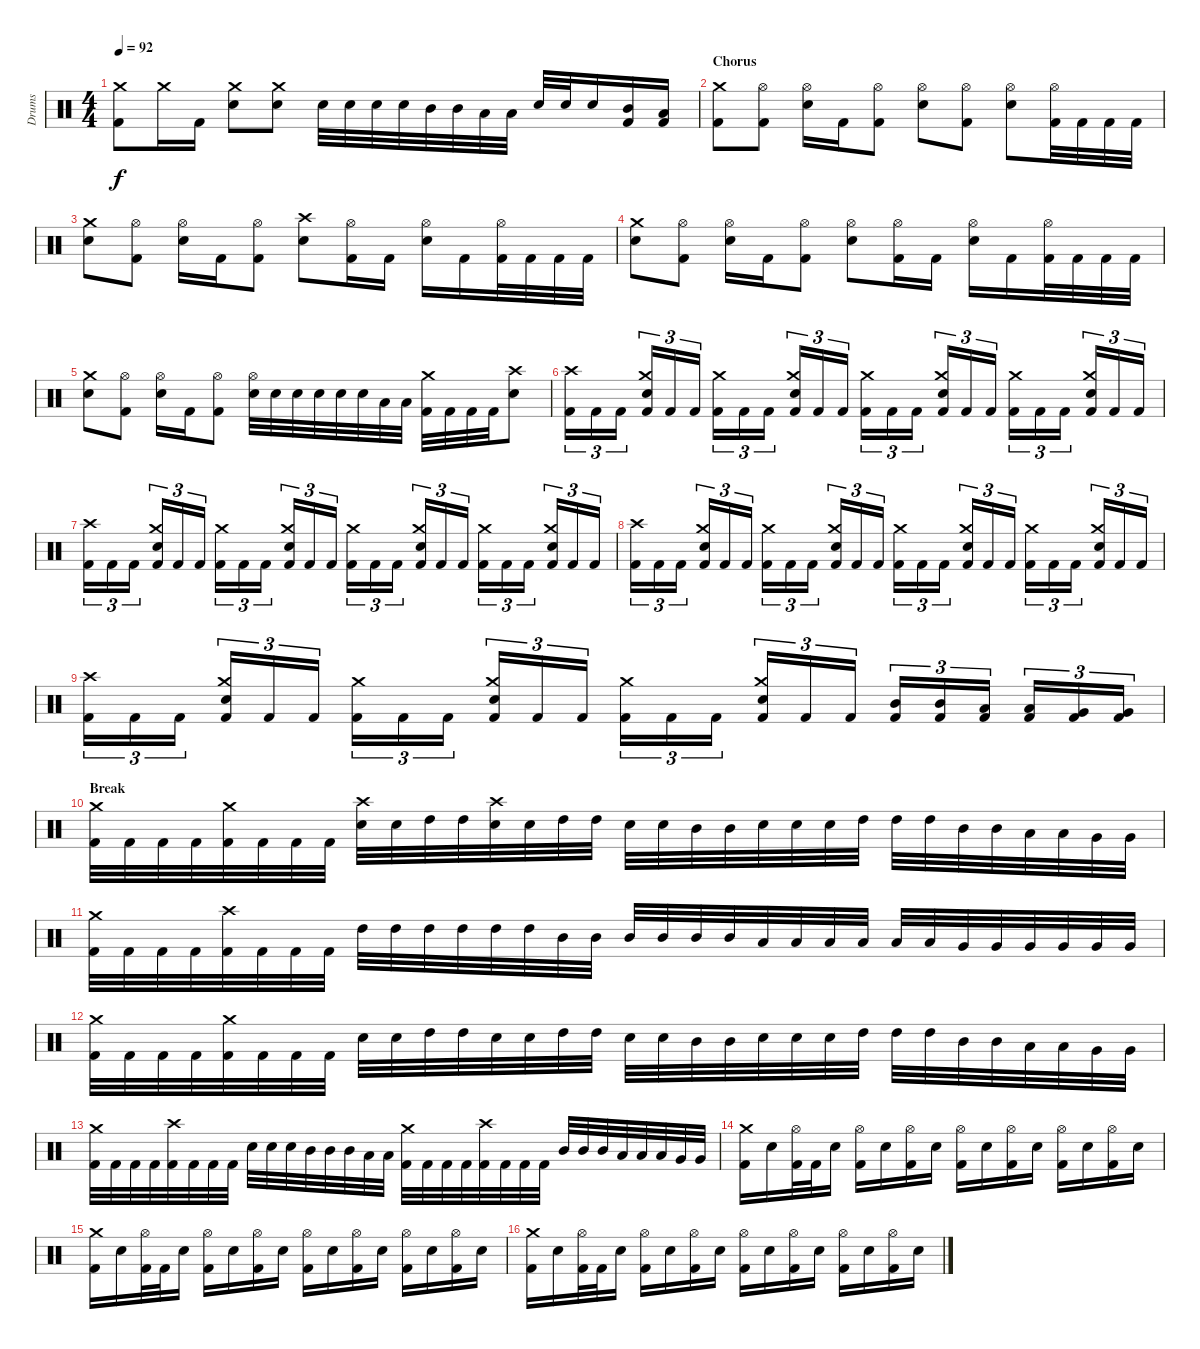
\track ("Drums" "Drums") {instrument percussion}
\staff {score}
\articulation defaults
\ts (4 4)
\tempo 92
\clef neutral
\ks c
("Kick (hit) 2" "Crash medium (hit)").8{dy f} "Crash medium (hit)".16 "Kick (hit) 2".16 ("Electric Snare (hit)" "Crash medium (hit)").8 ("Electric Snare (hit)" "Crash medium (hit)").8 "Electric Snare (hit)".32 "Electric Snare (hit)".32 "Electric Snare (hit)".32 "Electric Snare (hit)".32 "Mid Tom (hit)".32 "Mid Tom (hit)".32 "Low Tom (hit)".32 "Low Tom (hit)".32 "Electric Snare (hit)".32 "Electric Snare (hit)".32 "Electric Snare (hit)".16 ("Kick (hit) 2" "Mid Tom (hit)").16 ("Kick (hit) 2" "Low Tom (hit)").16 |
\section ("" "Chorus")
("Kick (hit) 2" "Crash medium (hit)").8 ("Kick (hit) 2" "Hi-Hat (open)").8 ("Electric Snare (hit)" "Hi-Hat (open)").16 "Kick (hit) 2".16 ("Kick (hit) 2" "Hi-Hat (open)").8 ("Electric Snare (hit)" "Hi-Hat (open)").8 ("Kick (hit) 2" "Hi-Hat (open)").8 ("Electric Snare (hit)" "Hi-Hat (open)").8 ("Kick (hit) 2" "Hi-Hat (open)").32 "Kick (hit) 2".32 "Kick (hit) 2".32 "Kick (hit) 2".32 |
("Electric Snare (hit)" "Crash medium (hit)").8 ("Kick (hit) 2" "Hi-Hat (open)").8 ("Electric Snare (hit)" "Hi-Hat (open)").16 "Kick (hit) 2".16 ("Kick (hit) 2" "Hi-Hat (open)").8 ("Electric Snare (hit)" "Crash high (hit)").8 ("Kick (hit) 2" "Hi-Hat (open)").16 "Kick (hit) 2".16 ("Electric Snare (hit)" "Hi-Hat (open)").16 "Kick (hit) 2".16 ("Kick (hit) 2" "Hi-Hat (open)").32 "Kick (hit) 2".32 "Kick (hit) 2".32 "Kick (hit) 2".32 |
("Electric Snare (hit)" "Crash medium (hit)").8 ("Kick (hit) 2" "Hi-Hat (open)").8 ("Electric Snare (hit)" "Hi-Hat (open)").16 "Kick (hit) 2".16 ("Kick (hit) 2" "Hi-Hat (open)").8 ("Electric Snare (hit)" "Hi-Hat (open)").8 ("Kick (hit) 2" "Hi-Hat (open)").16 "Kick (hit) 2".16 ("Electric Snare (hit)" "Hi-Hat (open)").16 "Kick (hit) 2".16 ("Kick (hit) 2" "Hi-Hat (open)").32 "Kick (hit) 2".32 "Kick (hit) 2".32 "Kick (hit) 2".32 |
("Electric Snare (hit)" "Crash medium (hit)").8 ("Kick (hit) 2" "Hi-Hat (open)").8 ("Electric Snare (hit)" "Hi-Hat (open)").16 "Kick (hit) 2".16 ("Kick (hit) 2" "Hi-Hat (open)").8 ("Electric Snare (hit)" "Hi-Hat (open)").32 "Electric Snare (hit)".32 "Electric Snare (hit)".32 "Electric Snare (hit)".32 "Electric Snare (hit)".32 "Electric Snare (hit)".32 "Low Tom (hit)".32 "Low Tom (hit)".32 ("Kick (hit) 2" "Crash medium (hit)").32 "Kick (hit) 2".32 "Kick (hit) 2".32 "Kick (hit) 2".32 ("Electric Snare (hit)" "Crash high (hit)").8 |
("Kick (hit) 2" "Crash high (hit)").16{tu (3 2)} "Kick (hit) 2".16{tu (3 2)} "Kick (hit) 2".16{tu (3 2)} ("Kick (hit) 2" "Electric Snare (hit)" "Crash medium (hit)").16{tu (3 2)} "Kick (hit) 2".16{tu (3 2)} "Kick (hit) 2".16{tu (3 2)} ("Kick (hit) 2" "Crash medium (hit)").16{tu (3 2)} "Kick (hit) 2".16{tu (3 2)} "Kick (hit) 2".16{tu (3 2)} ("Kick (hit) 2" "Electric Snare (hit)" "Crash medium (hit)").16{tu (3 2)} "Kick (hit) 2".16{tu (3 2)} "Kick (hit) 2".16{tu (3 2)} ("Kick (hit) 2" "Crash medium (hit)").16{tu (3 2)} "Kick (hit) 2".16{tu (3 2)} "Kick (hit) 2".16{tu (3 2)} ("Kick (hit) 2" "Electric Snare (hit)" "Crash medium (hit)").16{tu (3 2)} "Kick (hit) 2".16{tu (3 2)} "Kick (hit) 2".16{tu (3 2)} ("Kick (hit) 2" "Crash medium (hit)").16{tu (3 2)} "Kick (hit) 2".16{tu (3 2)} "Kick (hit) 2".16{tu (3 2)} ("Kick (hit) 2" "Electric Snare (hit)" "Crash medium (hit)").16{tu (3 2)} "Kick (hit) 2".16{tu (3 2)} "Kick (hit) 2".16{tu (3 2)} |
("Kick (hit) 2" "Crash high (hit)").16{tu (3 2)} "Kick (hit) 2".16{tu (3 2)} "Kick (hit) 2".16{tu (3 2)} ("Kick (hit) 2" "Electric Snare (hit)" "Crash medium (hit)").16{tu (3 2)} "Kick (hit) 2".16{tu (3 2)} "Kick (hit) 2".16{tu (3 2)} ("Kick (hit) 2" "Crash medium (hit)").16{tu (3 2)} "Kick (hit) 2".16{tu (3 2)} "Kick (hit) 2".16{tu (3 2)} ("Kick (hit) 2" "Electric Snare (hit)" "Crash medium (hit)").16{tu (3 2)} "Kick (hit) 2".16{tu (3 2)} "Kick (hit) 2".16{tu (3 2)} ("Kick (hit) 2" "Crash medium (hit)").16{tu (3 2)} "Kick (hit) 2".16{tu (3 2)} "Kick (hit) 2".16{tu (3 2)} ("Kick (hit) 2" "Electric Snare (hit)" "Crash medium (hit)").16{tu (3 2)} "Kick (hit) 2".16{tu (3 2)} "Kick (hit) 2".16{tu (3 2)} ("Kick (hit) 2" "Crash medium (hit)").16{tu (3 2)} "Kick (hit) 2".16{tu (3 2)} "Kick (hit) 2".16{tu (3 2)} ("Kick (hit) 2" "Electric Snare (hit)" "Crash medium (hit)").16{tu (3 2)} "Kick (hit) 2".16{tu (3 2)} "Kick (hit) 2".16{tu (3 2)} |
("Kick (hit) 2" "Crash high (hit)").16{tu (3 2)} "Kick (hit) 2".16{tu (3 2)} "Kick (hit) 2".16{tu (3 2)} ("Kick (hit) 2" "Electric Snare (hit)" "Crash medium (hit)").16{tu (3 2)} "Kick (hit) 2".16{tu (3 2)} "Kick (hit) 2".16{tu (3 2)} ("Kick (hit) 2" "Crash medium (hit)").16{tu (3 2)} "Kick (hit) 2".16{tu (3 2)} "Kick (hit) 2".16{tu (3 2)} ("Kick (hit) 2" "Electric Snare (hit)" "Crash medium (hit)").16{tu (3 2)} "Kick (hit) 2".16{tu (3 2)} "Kick (hit) 2".16{tu (3 2)} ("Kick (hit) 2" "Crash medium (hit)").16{tu (3 2)} "Kick (hit) 2".16{tu (3 2)} "Kick (hit) 2".16{tu (3 2)} ("Kick (hit) 2" "Electric Snare (hit)" "Crash medium (hit)").16{tu (3 2)} "Kick (hit) 2".16{tu (3 2)} "Kick (hit) 2".16{tu (3 2)} ("Kick (hit) 2" "Crash medium (hit)").16{tu (3 2)} "Kick (hit) 2".16{tu (3 2)} "Kick (hit) 2".16{tu (3 2)} ("Kick (hit) 2" "Electric Snare (hit)" "Crash medium (hit)").16{tu (3 2)} "Kick (hit) 2".16{tu (3 2)} "Kick (hit) 2".16{tu (3 2)} |
("Kick (hit) 2" "Crash high (hit)").16{tu (3 2)} "Kick (hit) 2".16{tu (3 2)} "Kick (hit) 2".16{tu (3 2)} ("Kick (hit) 2" "Electric Snare (hit)" "Crash medium (hit)").16{tu (3 2)} "Kick (hit) 2".16{tu (3 2)} "Kick (hit) 2".16{tu (3 2)} ("Kick (hit) 2" "Crash medium (hit)").16{tu (3 2)} "Kick (hit) 2".16{tu (3 2)} "Kick (hit) 2".16{tu (3 2)} ("Kick (hit) 2" "Electric Snare (hit)" "Crash medium (hit)").16{tu (3 2)} "Kick (hit) 2".16{tu (3 2)} "Kick (hit) 2".16{tu (3 2)} ("Kick (hit) 2" "Crash medium (hit)").16{tu (3 2)} "Kick (hit) 2".16{tu (3 2)} "Kick (hit) 2".16{tu (3 2)} ("Kick (hit) 2" "Electric Snare (hit)" "Crash medium (hit)").16{tu (3 2)} "Kick (hit) 2".16{tu (3 2)} "Kick (hit) 2".16{tu (3 2)} ("Kick (hit) 2" "Mid Tom (hit)").16{tu (3 2)} ("Kick (hit) 2" "Mid Tom (hit)").16{tu (3 2)} ("Kick (hit) 2" "Low Tom (hit)").16{tu (3 2)} ("Kick (hit) 2" "Low Tom (hit)").16{tu (3 2)} ("Kick (hit) 2" "Very Low Tom (hit)").16{tu (3 2)} ("Kick (hit) 2" "Very Low Tom (hit)").16{tu (3 2)} |
\section ("" "Break")
("Kick (hit) 2" "Crash medium (hit)").32 "Kick (hit) 2".32 "Kick (hit) 2".32 "Kick (hit) 2".32 ("Kick (hit) 2" "Crash medium (hit)").32 "Kick (hit) 2".32 "Kick (hit) 2".32 "Kick (hit) 2".32 ("Electric Snare (hit)" "Crash high (hit)").32 "Electric Snare (hit)".32 "High Tom (hit)".32 "High Tom (hit)".32 ("Electric Snare (hit)" "Crash high (hit)").32 "Electric Snare (hit)".32 "High Tom (hit)".32 "High Tom (hit)".32 "Electric Snare (hit)".32 "Electric Snare (hit)".32 "Mid Tom (hit)".32 "Mid Tom (hit)".32 "Electric Snare (hit)".32 "Electric Snare (hit)".32 "Electric Snare (hit)".32 "High Tom (hit)".32 "High Tom (hit)".32 "High Tom (hit)".32 "Mid Tom (hit)".32 "Mid Tom (hit)".32 "Low Tom (hit)".32 "Low Tom (hit)".32 "Very Low Tom (hit)".32 "Very Low Tom (hit)".32 |
("Kick (hit) 2" "Crash medium (hit)").32 "Kick (hit) 2".32 "Kick (hit) 2".32 "Kick (hit) 2".32 ("Kick (hit) 2" "Crash high (hit)").32 "Kick (hit) 2".32 "Kick (hit) 2".32 "Kick (hit) 2".32 "High Tom (hit)".32 "High Tom (hit)".32 "High Tom (hit)".32 "High Tom (hit)".32 "High Tom (hit)".32 "High Tom (hit)".32 "Mid Tom (hit)".32 "Mid Tom (hit)".32 "Mid Tom (hit)".32 "Mid Tom (hit)".32 "Mid Tom (hit)".32 "Mid Tom (hit)".32 "Low Tom (hit)".32 "Low Tom (hit)".32 "Low Tom (hit)".32 "Low Tom (hit)".32 "Low Tom (hit)".32 "Low Tom (hit)".32 "Very Low Tom (hit)".32 "Very Low Tom (hit)".32 "Very Low Tom (hit)".32 "Very Low Tom (hit)".32 "Very Low Tom (hit)".32 "Very Low Tom (hit)".32 |
("Kick (hit) 2" "Crash medium (hit)").32 "Kick (hit) 2".32 "Kick (hit) 2".32 "Kick (hit) 2".32 ("Kick (hit) 2" "Crash medium (hit)").32 "Kick (hit) 2".32 "Kick (hit) 2".32 "Kick (hit) 2".32 "Electric Snare (hit)".32 "Electric Snare (hit)".32 "High Tom (hit)".32 "High Tom (hit)".32 "Electric Snare (hit)".32 "Electric Snare (hit)".32 "High Tom (hit)".32 "High Tom (hit)".32 "Electric Snare (hit)".32 "Electric Snare (hit)".32 "Mid Tom (hit)".32 "Mid Tom (hit)".32 "Electric Snare (hit)".32 "Electric Snare (hit)".32 "Electric Snare (hit)".32 "High Tom (hit)".32 "High Tom (hit)".32 "High Tom (hit)".32 "Mid Tom (hit)".32 "Mid Tom (hit)".32 "Low Tom (hit)".32 "Low Tom (hit)".32 "Very Low Tom (hit)".32 "Very Low Tom (hit)".32 |
("Kick (hit) 2" "Crash medium (hit)").32 "Kick (hit) 2".32 "Kick (hit) 2".32 "Kick (hit) 2".32 ("Kick (hit) 2" "Crash high (hit)").32 "Kick (hit) 2".32 "Kick (hit) 2".32 "Kick (hit) 2".32 "Electric Snare (hit)".32 "Electric Snare (hit)".32 "Electric Snare (hit)".32 "Mid Tom (hit)".32 "Mid Tom (hit)".32 "Mid Tom (hit)".32 "Low Tom (hit)".32 "Low Tom (hit)".32 ("Kick (hit) 2" "Crash medium (hit)").32 "Kick (hit) 2".32 "Kick (hit) 2".32 "Kick (hit) 2".32 ("Kick (hit) 2" "Crash high (hit)").32 "Kick (hit) 2".32 "Kick (hit) 2".32 "Kick (hit) 2".32 "Mid Tom (hit)".32 "Mid Tom (hit)".32 "Mid Tom (hit)".32 "Low Tom (hit)".32 "Low Tom (hit)".32 "Low Tom (hit)".32 "Very Low Tom (hit)".32 "Very Low Tom (hit)".32 |
("Kick (hit) 2" "Crash medium (hit)").16 "Electric Snare (hit)".16 ("Kick (hit) 2" "Hi-Hat (open)").32 "Kick (hit) 2".32 "Electric Snare (hit)".16 ("Kick (hit) 2" "Hi-Hat (open)").16 "Electric Snare (hit)".16 ("Kick (hit) 2" "Hi-Hat (open)").16 "Electric Snare (hit)".16 ("Kick (hit) 2" "Hi-Hat (open)").16 "Electric Snare (hit)".16 ("Kick (hit) 2" "Hi-Hat (open)").16 "Electric Snare (hit)".16 ("Kick (hit) 2" "Hi-Hat (open)").16 "Electric Snare (hit)".16 ("Kick (hit) 2" "Hi-Hat (open)").16 "Electric Snare (hit)".16 |
("Kick (hit) 2" "Crash medium (hit)").16 "Electric Snare (hit)".16 ("Kick (hit) 2" "Hi-Hat (open)").32 "Kick (hit) 2".32 "Electric Snare (hit)".16 ("Kick (hit) 2" "Hi-Hat (open)").16 "Electric Snare (hit)".16 ("Kick (hit) 2" "Hi-Hat (open)").16 "Electric Snare (hit)".16 ("Kick (hit) 2" "Hi-Hat (open)").16 "Electric Snare (hit)".16 ("Kick (hit) 2" "Hi-Hat (open)").16 "Electric Snare (hit)".16 ("Kick (hit) 2" "Hi-Hat (open)").16 "Electric Snare (hit)".16 ("Kick (hit) 2" "Hi-Hat (open)").16 "Electric Snare (hit)".16 |
("Kick (hit) 2" "Crash medium (hit)").16 "Electric Snare (hit)".16 ("Kick (hit) 2" "Hi-Hat (open)").32 "Kick (hit) 2".32 "Electric Snare (hit)".16 ("Kick (hit) 2" "Hi-Hat (open)").16 "Electric Snare (hit)".16 ("Kick (hit) 2" "Hi-Hat (open)").16 "Electric Snare (hit)".16 ("Kick (hit) 2" "Hi-Hat (open)").16 "Electric Snare (hit)".16 ("Kick (hit) 2" "Hi-Hat (open)").16 "Electric Snare (hit)".16 ("Kick (hit) 2" "Hi-Hat (open)").16 "Electric Snare (hit)".16 ("Kick (hit) 2" "Hi-Hat (open)").16 "Electric Snare (hit)".16
